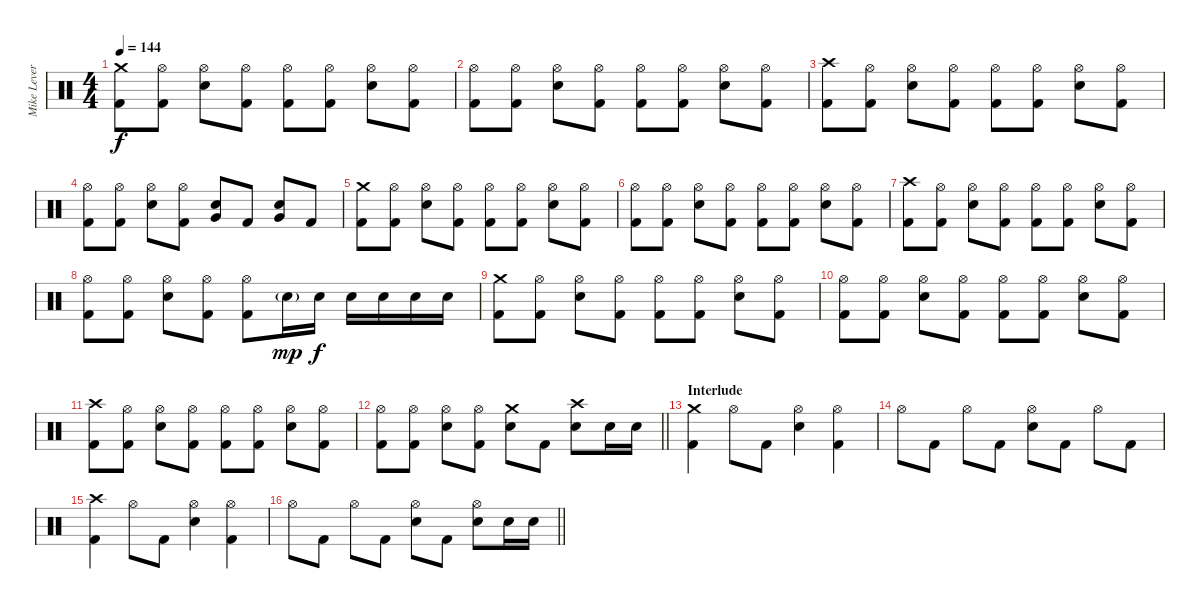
\track ("Mike Leverence - Drums" "Mike Lever") {instrument percussion}
\staff {score}
\articulation defaults
\ts (4 4)
\tempo 144
\clef neutral
\ks c
("Crash medium (hit)" "Kick (hit) 2").8{dy f} ("Hi-Hat (open)" "Kick (hit) 2").8 ("Hi-Hat (open)" "Electric Snare (hit)").8 ("Hi-Hat (open)" "Kick (hit) 2").8 ("Hi-Hat (open)" "Kick (hit) 2").8 ("Hi-Hat (open)" "Kick (hit) 2").8 ("Hi-Hat (open)" "Electric Snare (hit)").8 ("Hi-Hat (open)" "Kick (hit) 2").8 |
("Hi-Hat (open)" "Kick (hit) 2").8 ("Hi-Hat (open)" "Kick (hit) 2").8 ("Hi-Hat (open)" "Electric Snare (hit)").8 ("Hi-Hat (open)" "Kick (hit) 2").8 ("Hi-Hat (open)" "Kick (hit) 2").8 ("Hi-Hat (open)" "Kick (hit) 2").8 ("Hi-Hat (open)" "Electric Snare (hit)").8 ("Hi-Hat (open)" "Kick (hit) 2").8 |
("Crash high (hit)" "Kick (hit) 2").8 ("Hi-Hat (open)" "Kick (hit) 2").8 ("Hi-Hat (open)" "Electric Snare (hit)").8 ("Hi-Hat (open)" "Kick (hit) 2").8 ("Hi-Hat (open)" "Kick (hit) 2").8 ("Hi-Hat (open)" "Kick (hit) 2").8 ("Hi-Hat (open)" "Electric Snare (hit)").8 ("Hi-Hat (open)" "Kick (hit) 2").8 |
("Hi-Hat (open)" "Kick (hit) 2").8 ("Hi-Hat (open)" "Kick (hit) 2").8 ("Hi-Hat (open)" "Electric Snare (hit)").8 ("Hi-Hat (open)" "Kick (hit) 2").8 ("Very Low Tom (hit)" "Electric Snare (hit)").8 "Kick (hit) 2".8 ("Very Low Tom (hit)" "Electric Snare (hit)").8 "Kick (hit) 2".8 |
("Crash medium (hit)" "Kick (hit) 2").8 ("Hi-Hat (open)" "Kick (hit) 2").8 ("Hi-Hat (open)" "Electric Snare (hit)").8 ("Hi-Hat (open)" "Kick (hit) 2").8 ("Hi-Hat (open)" "Kick (hit) 2").8 ("Hi-Hat (open)" "Kick (hit) 2").8 ("Hi-Hat (open)" "Electric Snare (hit)").8 ("Hi-Hat (open)" "Kick (hit) 2").8 |
("Hi-Hat (open)" "Kick (hit) 2").8 ("Hi-Hat (open)" "Kick (hit) 2").8 ("Hi-Hat (open)" "Electric Snare (hit)").8 ("Hi-Hat (open)" "Kick (hit) 2").8 ("Hi-Hat (open)" "Kick (hit) 2").8 ("Hi-Hat (open)" "Kick (hit) 2").8 ("Hi-Hat (open)" "Electric Snare (hit)").8 ("Hi-Hat (open)" "Kick (hit) 2").8 |
("Crash high (hit)" "Kick (hit) 2").8 ("Hi-Hat (open)" "Kick (hit) 2").8 ("Hi-Hat (open)" "Electric Snare (hit)").8 ("Hi-Hat (open)" "Kick (hit) 2").8 ("Hi-Hat (open)" "Kick (hit) 2").8 ("Hi-Hat (open)" "Kick (hit) 2").8 ("Hi-Hat (open)" "Electric Snare (hit)").8 ("Hi-Hat (open)" "Kick (hit) 2").8 |
("Hi-Hat (open)" "Kick (hit) 2").8 ("Hi-Hat (open)" "Kick (hit) 2").8 ("Hi-Hat (open)" "Electric Snare (hit)").8 ("Hi-Hat (open)" "Kick (hit) 2").8 ("Hi-Hat (open)" "Kick (hit) 2").8 "Electric Snare (hit)"{g}.16{dy mp} "Electric Snare (hit)".16{dy f} "Electric Snare (hit)".16 "Electric Snare (hit)".16 "Electric Snare (hit)".16 "Electric Snare (hit)".16 |
("Crash medium (hit)" "Kick (hit) 2").8 ("Hi-Hat (open)" "Kick (hit) 2").8 ("Hi-Hat (open)" "Electric Snare (hit)").8 ("Hi-Hat (open)" "Kick (hit) 2").8 ("Hi-Hat (open)" "Kick (hit) 2").8 ("Hi-Hat (open)" "Kick (hit) 2").8 ("Hi-Hat (open)" "Electric Snare (hit)").8 ("Hi-Hat (open)" "Kick (hit) 2").8 |
("Hi-Hat (open)" "Kick (hit) 2").8 ("Hi-Hat (open)" "Kick (hit) 2").8 ("Hi-Hat (open)" "Electric Snare (hit)").8 ("Hi-Hat (open)" "Kick (hit) 2").8 ("Hi-Hat (open)" "Kick (hit) 2").8 ("Hi-Hat (open)" "Kick (hit) 2").8 ("Hi-Hat (open)" "Electric Snare (hit)").8 ("Hi-Hat (open)" "Kick (hit) 2").8 |
("Crash high (hit)" "Kick (hit) 2").8 ("Hi-Hat (open)" "Kick (hit) 2").8 ("Hi-Hat (open)" "Electric Snare (hit)").8 ("Hi-Hat (open)" "Kick (hit) 2").8 ("Hi-Hat (open)" "Kick (hit) 2").8 ("Hi-Hat (open)" "Kick (hit) 2").8 ("Hi-Hat (open)" "Electric Snare (hit)").8 ("Hi-Hat (open)" "Kick (hit) 2").8 |
\barLineRight lightlight
("Hi-Hat (open)" "Kick (hit) 2").8 ("Hi-Hat (open)" "Kick (hit) 2").8 ("Hi-Hat (open)" "Electric Snare (hit)").8 ("Hi-Hat (open)" "Kick (hit) 2").8 ("Crash medium (hit)" "Electric Snare (hit)").8 "Kick (hit) 2".8 ("Crash high (hit)" "Electric Snare (hit)").8 "Electric Snare (hit)".16 "Electric Snare (hit)".16 |
\section ("" "Interlude")
("Crash medium (hit)" "Kick (hit) 2").4 "Hi-Hat (open)".8 "Kick (hit) 2".8 ("Hi-Hat (open)" "Electric Snare (hit)").4 ("Hi-Hat (open)" "Kick (hit) 2").4 |
"Hi-Hat (open)".8 "Kick (hit) 2".8 "Hi-Hat (open)".8 "Kick (hit) 2".8 ("Hi-Hat (open)" "Electric Snare (hit)").8 "Kick (hit) 2".8 "Hi-Hat (open)".8 "Kick (hit) 2".8 |
("Crash high (hit)" "Kick (hit) 2").4 "Hi-Hat (open)".8 "Kick (hit) 2".8 ("Hi-Hat (open)" "Electric Snare (hit)").4 ("Hi-Hat (open)" "Kick (hit) 2").4 |
\barLineRight lightlight "Hi-Hat (open)".8 "Kick (hit) 2".8 "Hi-Hat (open)".8 "Kick (hit) 2".8
("Hi-Hat (open)" "Electric Snare (hit)").8 "Kick (hit) 2".8 ("Hi-Hat (open)" "Electric Snare (hit)").8 "Electric Snare (hit)".16 "Electric Snare (hit)".16
